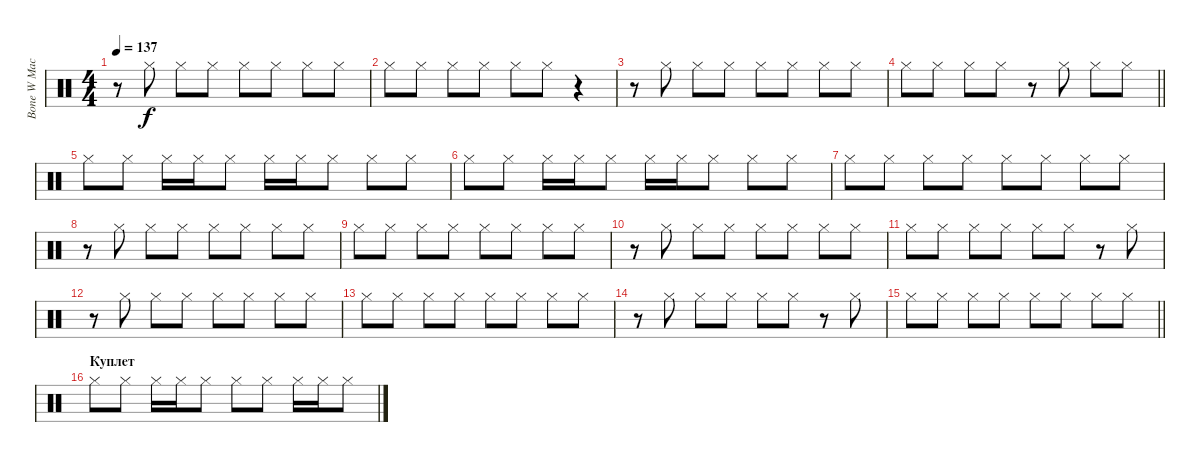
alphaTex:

\track ("Bone W Machine Cimbals" "Bone W Mac") {instrument percussion}
\staff {score}
\articulation defaults
\ts (4 4)
\tempo 137
\clef neutral
\ks c
r.8{dy f} "Hi-Hat (closed)".8 "Hi-Hat (closed)".8 "Hi-Hat (closed)".8 "Hi-Hat (closed)".8 "Hi-Hat (closed)".8 "Hi-Hat (closed)".8 "Hi-Hat (closed)".8 |
"Hi-Hat (closed)".8 "Hi-Hat (closed)".8 "Hi-Hat (closed)".8 "Hi-Hat (closed)".8 "Hi-Hat (closed)".8 "Hi-Hat (closed)".8 r.4 |
r.8 "Hi-Hat (closed)".8 "Hi-Hat (closed)".8 "Hi-Hat (closed)".8 "Hi-Hat (closed)".8 "Hi-Hat (closed)".8 "Hi-Hat (closed)".8 "Hi-Hat (closed)".8 |
\barLineRight lightlight "Hi-Hat (closed)".8 "Hi-Hat (closed)".8 "Hi-Hat (closed)".8 "Hi-Hat (closed)".8
r.8 "Hi-Hat (closed)".8 "Hi-Hat (closed)".8 "Hi-Hat (closed)".8 |
"Hi-Hat (closed)".8 "Hi-Hat (closed)".8 "Hi-Hat (closed)".16 "Hi-Hat (closed)".16 "Hi-Hat (closed)".8 "Hi-Hat (closed)".16 "Hi-Hat (closed)".16 "Hi-Hat (closed)".8 "Hi-Hat (closed)".8 "Hi-Hat (closed)".8 |
"Hi-Hat (closed)".8 "Hi-Hat (closed)".8 "Hi-Hat (closed)".16 "Hi-Hat (closed)".16 "Hi-Hat (closed)".8 "Hi-Hat (closed)".16 "Hi-Hat (closed)".16 "Hi-Hat (closed)".8 "Hi-Hat (closed)".8 "Hi-Hat (closed)".8 |
"Hi-Hat (closed)".8 "Hi-Hat (closed)".8 "Hi-Hat (closed)".8 "Hi-Hat (closed)".8 "Hi-Hat (closed)".8 "Hi-Hat (closed)".8 "Hi-Hat (closed)".8 "Hi-Hat (closed)".8 |
r.8 "Hi-Hat (closed)".8 "Hi-Hat (closed)".8 "Hi-Hat (closed)".8 "Hi-Hat (closed)".8 "Hi-Hat (closed)".8 "Hi-Hat (closed)".8 "Hi-Hat (closed)".8 |
"Hi-Hat (closed)".8 "Hi-Hat (closed)".8 "Hi-Hat (closed)".8 "Hi-Hat (closed)".8 "Hi-Hat (closed)".8 "Hi-Hat (closed)".8 "Hi-Hat (closed)".8 "Hi-Hat (closed)".8 |
r.8 "Hi-Hat (closed)".8 "Hi-Hat (closed)".8 "Hi-Hat (closed)".8 "Hi-Hat (closed)".8 "Hi-Hat (closed)".8 "Hi-Hat (closed)".8 "Hi-Hat (closed)".8 |
"Hi-Hat (closed)".8 "Hi-Hat (closed)".8 "Hi-Hat (closed)".8 "Hi-Hat (closed)".8 "Hi-Hat (closed)".8 "Hi-Hat (closed)".8 r.8 "Hi-Hat (closed)".8 |
r.8 "Hi-Hat (closed)".8 "Hi-Hat (closed)".8 "Hi-Hat (closed)".8 "Hi-Hat (closed)".8 "Hi-Hat (closed)".8 "Hi-Hat (closed)".8 "Hi-Hat (closed)".8 |
"Hi-Hat (closed)".8 "Hi-Hat (closed)".8 "Hi-Hat (closed)".8 "Hi-Hat (closed)".8 "Hi-Hat (closed)".8 "Hi-Hat (closed)".8 "Hi-Hat (closed)".8 "Hi-Hat (closed)".8 |
r.8 "Hi-Hat (closed)".8 "Hi-Hat (closed)".8 "Hi-Hat (closed)".8 "Hi-Hat (closed)".8 "Hi-Hat (closed)".8 r.8 "Hi-Hat (closed)".8 |
\barLineRight lightlight "Hi-Hat (closed)".8 "Hi-Hat (closed)".8 "Hi-Hat (closed)".8 "Hi-Hat (closed)".8 "Hi-Hat (closed)".8 "Hi-Hat (closed)".8 "Hi-Hat (closed)".8 "Hi-Hat (closed)".8
|
\section ("" "Куплет")
"Hi-Hat (closed)".8 "Hi-Hat (closed)".8 "Hi-Hat (closed)".16 "Hi-Hat (closed)".16 "Hi-Hat (closed)".8 "Hi-Hat (closed)".8 "Hi-Hat (closed)".8 "Hi-Hat (closed)".16 "Hi-Hat (closed)".16 "Hi-Hat (closed)".8
